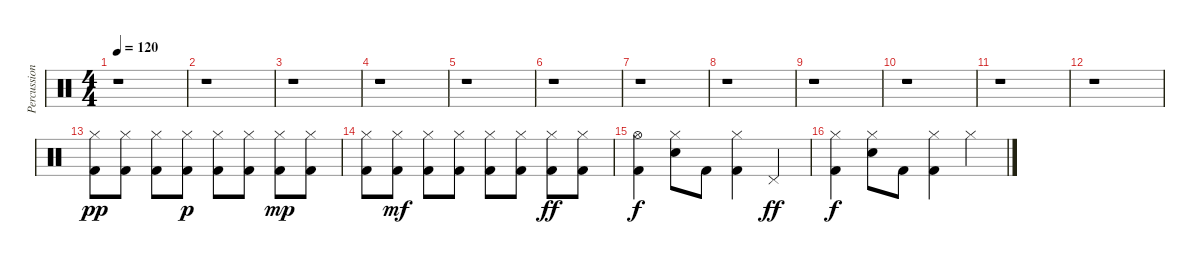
\track ("Percussion" "Percussion") {instrument percussion}
\staff {score}
\articulation defaults
\ts (4 4)
\tempo 120
\clef neutral
\ks c
r.1{dy pp} |
r.1 |
r.1 |
r.1 |
r.1 |
r.1 |
r.1 |
r.1 |
r.1 |
r.1 |
r.1 |
r.1 |
("Hi-Hat (closed)" "Kick (hit) 2").8 ("Hi-Hat (closed)" "Kick (hit) 2").8 ("Hi-Hat (closed)" "Kick (hit) 2").8 ("Hi-Hat (closed)" "Kick (hit) 2").8{dy p} ("Hi-Hat (closed)" "Kick (hit) 2").8 ("Hi-Hat (closed)" "Kick (hit) 2").8 ("Hi-Hat (closed)" "Kick (hit) 2").8{dy mp} ("Hi-Hat (closed)" "Kick (hit) 2").8 |
("Hi-Hat (closed)" "Kick (hit) 2").8 ("Hi-Hat (closed)" "Kick (hit) 2").8{dy mf} ("Hi-Hat (closed)" "Kick (hit) 2").8 ("Hi-Hat (closed)" "Kick (hit) 2").8 ("Hi-Hat (closed)" "Kick (hit) 2").8 ("Hi-Hat (closed)" "Kick (hit) 2").8 ("Hi-Hat (closed)" "Kick (hit) 2").8{dy ff} ("Hi-Hat (closed)" "Kick (hit) 2").8 |
("Hi-Hat (open)" "Kick (hit) 2").4{dy f} ("Hi-Hat (closed)" "Electric Snare (hit)").8 "Kick (hit) 2".8 ("Hi-Hat (closed)" "Kick (hit) 2").4 "Pedal Hi-Hat (hit)".4{dy ff} |
("Hi-Hat (closed)" "Kick (hit) 2").4{dy f} ("Hi-Hat (closed)" "Electric Snare (hit)").8 "Kick (hit) 2".8 ("Hi-Hat (closed)" "Kick (hit) 2").4 "Hi-Hat (closed)".4
